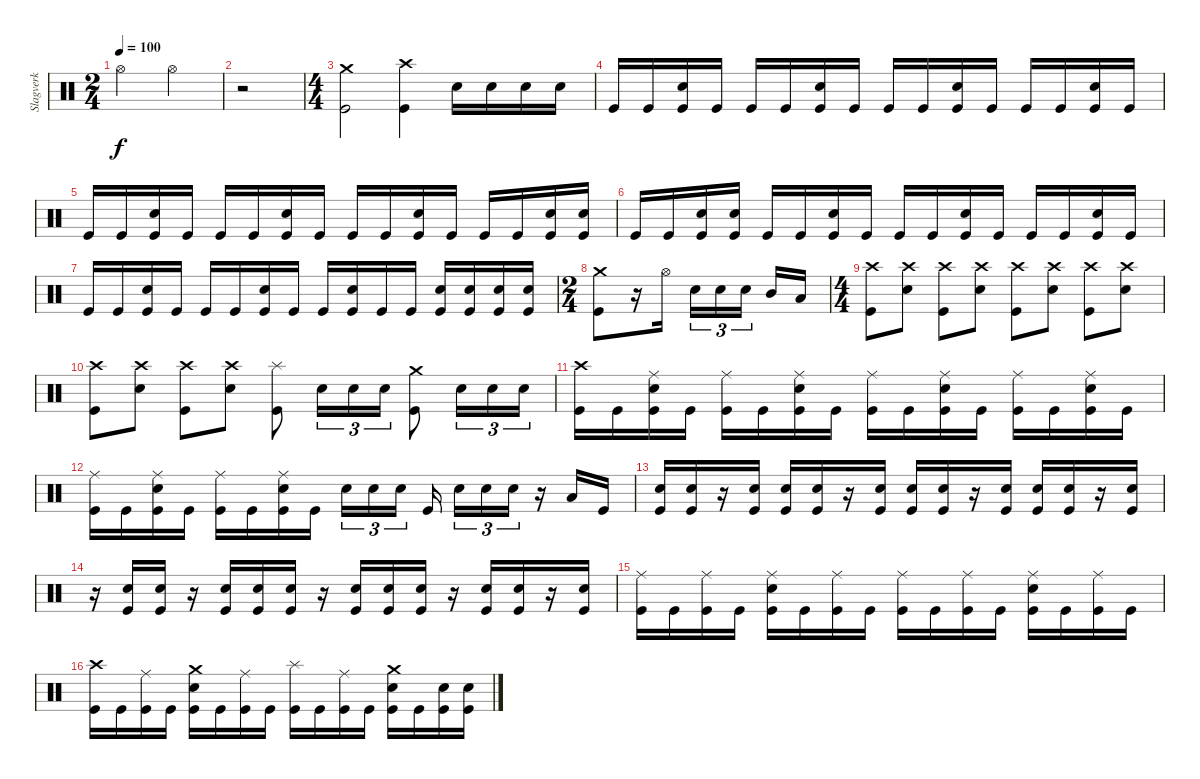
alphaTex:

\track ("Slagverk" "Slagverk") {instrument percussion}
\staff {score}
\articulation defaults
\ts (2 4)
\tempo 100
\clef neutral
\ks c "Hi-Hat (open)".4{dy f volume 13} "Hi-Hat (open)".4
|
r.2 |
\ts (4 4)
("Crash medium (hit)" "Kick (hit)").2 ("Crash high (hit)" "Kick (hit)").4 "Electric Snare (hit)".16 "Electric Snare (hit)".16 "Electric Snare (hit)".16 "Electric Snare (hit)".16 |
"Kick (hit)".16{volume 13} "Kick (hit)".16 ("Electric Snare (hit)" "Kick (hit)").16 "Kick (hit)".16 "Kick (hit)".16 "Kick (hit)".16 ("Electric Snare (hit)" "Kick (hit)").16 "Kick (hit)".16 "Kick (hit)".16 "Kick (hit)".16 ("Electric Snare (hit)" "Kick (hit)").16 "Kick (hit)".16 "Kick (hit)".16 "Kick (hit)".16 ("Electric Snare (hit)" "Kick (hit)").16 "Kick (hit)".16 |
"Kick (hit)".16 "Kick (hit)".16 ("Electric Snare (hit)" "Kick (hit)").16 "Kick (hit)".16 "Kick (hit)".16 "Kick (hit)".16 ("Electric Snare (hit)" "Kick (hit)").16 "Kick (hit)".16 "Kick (hit)".16 "Kick (hit)".16 ("Electric Snare (hit)" "Kick (hit)").16 "Kick (hit)".16 "Kick (hit)".16 "Kick (hit)".16 ("Electric Snare (hit)" "Kick (hit)").16 ("Electric Snare (hit)" "Kick (hit)").16 |
"Kick (hit)".16 "Kick (hit)".16 ("Electric Snare (hit)" "Kick (hit)").16 ("Electric Snare (hit)" "Kick (hit)").16 "Kick (hit)".16 "Kick (hit)".16 ("Electric Snare (hit)" "Kick (hit)").16 "Kick (hit)".16 "Kick (hit)".16 "Kick (hit)".16 ("Electric Snare (hit)" "Kick (hit)").16 "Kick (hit)".16 "Kick (hit)".16 "Kick (hit)".16 ("Electric Snare (hit)" "Kick (hit)").16 "Kick (hit)".16 |
"Kick (hit)".16 "Kick (hit)".16 ("Electric Snare (hit)" "Kick (hit)").16 "Kick (hit)".16 "Kick (hit)".16 "Kick (hit)".16 ("Electric Snare (hit)" "Kick (hit)").16 "Kick (hit)".16 "Kick (hit)".16 ("Electric Snare (hit)" "Kick (hit)").16 "Kick (hit)".16 "Kick (hit)".16 ("Electric Snare (hit)" "Kick (hit)").16 ("Electric Snare (hit)" "Kick (hit)").16 ("Electric Snare (hit)" "Kick (hit)").16 ("Electric Snare (hit)" "Kick (hit)").16 |
\ts (2 4)
("Crash medium (hit)" "Kick (hit)").8 r.16 "Hi-Hat (open)".16 "Electric Snare (hit)".16{tu (3 2)} "Electric Snare (hit)".16{tu (3 2)} "Electric Snare (hit)".16{tu (3 2)} "Mid Tom (hit)".16 "Low Tom (hit)".16 |
\ts (4 4)
("Crash high (hit)" "Kick (hit)").8 ("Crash high (hit)" "Electric Snare (hit)").8 ("Crash high (hit)" "Kick (hit)").8 ("Crash high (hit)" "Electric Snare (hit)").8 ("Crash high (hit)" "Kick (hit)").8 ("Crash high (hit)" "Electric Snare (hit)").8 ("Crash high (hit)" "Kick (hit)").8 ("Crash high (hit)" "Electric Snare (hit)").8 |
("Crash high (hit)" "Kick (hit)").8 ("Crash high (hit)" "Electric Snare (hit)").8 ("Crash high (hit)" "Kick (hit)").8 ("Crash high (hit)" "Electric Snare (hit)").8 ("Splash (hit)" "Kick (hit)").8 "Electric Snare (hit)".16{tu (3 2)} "Electric Snare (hit)".16{tu (3 2)} "Electric Snare (hit)".16{tu (3 2)} ("Crash medium (hit)" "Kick (hit)").8 "Electric Snare (hit)".16{tu (3 2)} "Electric Snare (hit)".16{tu (3 2)} "Electric Snare (hit)".16{tu (3 2)} |
("Crash high (hit)" "Kick (hit)").16 "Kick (hit)".16 ("Ride (middle)" "Electric Snare (hit)" "Kick (hit)").16 "Kick (hit)".16 ("Ride (middle)" "Kick (hit)").16 "Kick (hit)".16 ("Ride (middle)" "Electric Snare (hit)" "Kick (hit)").16 "Kick (hit)".16 ("Ride (middle)" "Kick (hit)").16 "Kick (hit)".16 ("Ride (middle)" "Electric Snare (hit)" "Kick (hit)").16 "Kick (hit)".16 ("Ride (middle)" "Kick (hit)").16 "Kick (hit)".16 ("Ride (middle)" "Electric Snare (hit)" "Kick (hit)").16 "Kick (hit)".16 |
("Ride (middle)" "Kick (hit)").16 "Kick (hit)".16 ("Ride (middle)" "Electric Snare (hit)" "Kick (hit)").16 "Kick (hit)".16 ("Ride (middle)" "Kick (hit)").16 "Kick (hit)".16 ("Ride (middle)" "Electric Snare (hit)" "Kick (hit)").16 "Kick (hit)".16 "Electric Snare (hit)".16{tu (3 2)} "Electric Snare (hit)".16{tu (3 2)} "Electric Snare (hit)".16{tu (3 2)} "Kick (hit)".16 "Electric Snare (hit)".16{tu (3 2)} "Electric Snare (hit)".16{tu (3 2)} "Electric Snare (hit)".16{tu (3 2)} r.16 "Low Floor Tom (hit)".16 "Kick (hit)".16 |
("Electric Snare (hit)" "Kick (hit)").16 ("Electric Snare (hit)" "Kick (hit)").16 r.16 ("Electric Snare (hit)" "Kick (hit)").16 ("Electric Snare (hit)" "Kick (hit)").16 ("Electric Snare (hit)" "Kick (hit)").16 r.16 ("Electric Snare (hit)" "Kick (hit)").16 ("Electric Snare (hit)" "Kick (hit)").16 ("Electric Snare (hit)" "Kick (hit)").16 r.16 ("Electric Snare (hit)" "Kick (hit)").16 ("Electric Snare (hit)" "Kick (hit)").16 ("Electric Snare (hit)" "Kick (hit)").16 r.16 ("Electric Snare (hit)" "Kick (hit)").16 |
r.16 ("Electric Snare (hit)" "Kick (hit)").16 ("Electric Snare (hit)" "Kick (hit)").16 r.16 ("Electric Snare (hit)" "Kick (hit)").16 ("Electric Snare (hit)" "Kick (hit)").16 ("Electric Snare (hit)" "Kick (hit)").16 r.16 ("Electric Snare (hit)" "Kick (hit)").16 ("Electric Snare (hit)" "Kick (hit)").16 ("Electric Snare (hit)" "Kick (hit)").16 r.16 ("Electric Snare (hit)" "Kick (hit)").16 ("Electric Snare (hit)" "Kick (hit)").16 r.16 ("Electric Snare (hit)" "Kick (hit)").16 |
("Ride (middle)" "Kick (hit)").16 "Kick (hit)".16 ("Ride (middle)" "Kick (hit)").16 "Kick (hit)".16 ("Ride (middle)" "Electric Snare (hit)" "Kick (hit)").16 "Kick (hit)".16 ("Ride (middle)" "Kick (hit)").16 "Kick (hit)".16 ("Ride (middle)" "Kick (hit)").16 "Kick (hit)".16 ("Ride (middle)" "Kick (hit)").16 "Kick (hit)".16 ("Ride (middle)" "Electric Snare (hit)" "Kick (hit)").16 "Kick (hit)".16 ("Ride (middle)" "Kick (hit)").16 "Kick (hit)".16 |
("Crash high (hit)" "Kick (hit)").16 "Kick (hit)".16 ("Ride (middle)" "Kick (hit)").16 "Kick (hit)".16 ("Crash medium (hit)" "Electric Snare (hit)" "Kick (hit)").16 "Kick (hit)".16 ("Ride (middle)" "Kick (hit)").16 "Kick (hit)".16 ("Splash (hit)" "Kick (hit)").16 "Kick (hit)".16 ("Ride (middle)" "Kick (hit)").16 "Kick (hit)".16 ("Crash medium (hit)" "Electric Snare (hit)" "Kick (hit)").16 "Kick (hit)".16 ("Electric Snare (hit)" "Kick (hit)").16 ("Electric Snare (hit)" "Kick (hit)").16
